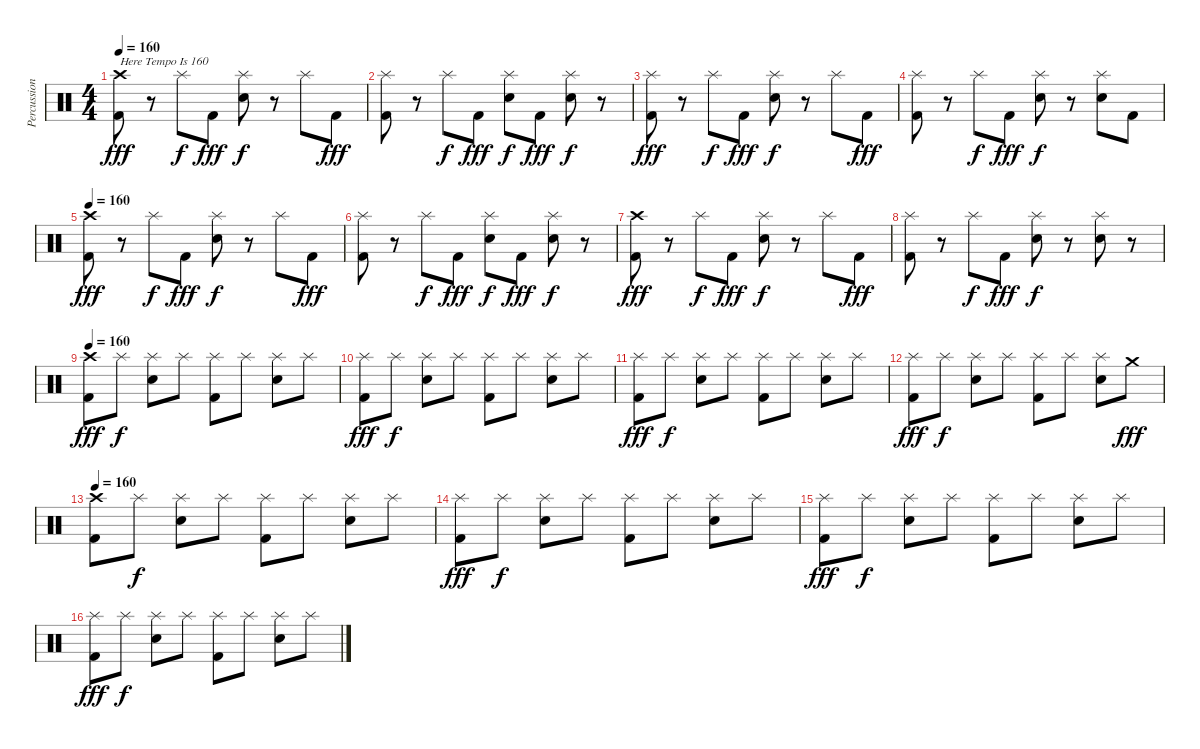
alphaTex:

\track ("Percussion" "Percussion") {instrument percussion}
\staff {score}
\articulation defaults
\ts (4 4)
\tempo 160
\clef neutral
\ks c
("Crash high (hit)" "Kick (hit) 2").8{txt "Here Tempo Is 160" dy fff} r.8 "Splash (hit)".8{dy f} "Kick (hit) 2".8{dy fff} ("Splash (hit)" "Electric Snare (hit)").8{dy f} r.8 "Splash (hit)".8 "Kick (hit) 2".8{dy fff} |
("Splash (hit)" "Kick (hit) 2").8 r.8 "Splash (hit)".8{dy f} "Kick (hit) 2".8{dy fff} ("Splash (hit)" "Electric Snare (hit)").8{dy f} "Kick (hit) 2".8{dy fff} ("Splash (hit)" "Electric Snare (hit)").8{dy f} r.8 |
("Splash (hit)" "Kick (hit) 2").8{dy fff} r.8 "Splash (hit)".8{dy f} "Kick (hit) 2".8{dy fff} ("Splash (hit)" "Electric Snare (hit)").8{dy f} r.8 "Splash (hit)".8 "Kick (hit) 2".8{dy fff} |
("Splash (hit)" "Kick (hit) 2").8 r.8 "Splash (hit)".8{dy f} "Kick (hit) 2".8{dy fff} ("Splash (hit)" "Electric Snare (hit)").8{dy f} r.8 ("Splash (hit)" "Electric Snare (hit)").8 "Kick (hit) 2".8 |
\tempo 160
("Crash high (hit)" "Kick (hit) 2").8{dy fff} r.8 "Splash (hit)".8{dy f} "Kick (hit) 2".8{dy fff} ("Splash (hit)" "Electric Snare (hit)").8{dy f} r.8 "Splash (hit)".8 "Kick (hit) 2".8{dy fff} |
("Splash (hit)" "Kick (hit) 2").8 r.8 "Splash (hit)".8{dy f} "Kick (hit) 2".8{dy fff} ("Splash (hit)" "Electric Snare (hit)").8{dy f} "Kick (hit) 2".8{dy fff} ("Splash (hit)" "Electric Snare (hit)").8{dy f} r.8 |
("Crash high (hit)" "Kick (hit) 2").8{dy fff} r.8 "Splash (hit)".8{dy f} "Kick (hit) 2".8{dy fff} ("Splash (hit)" "Electric Snare (hit)").8{dy f} r.8 "Splash (hit)".8 "Kick (hit) 2".8{dy fff} |
("Splash (hit)" "Kick (hit) 2").8 r.8 "Splash (hit)".8{dy f} "Kick (hit) 2".8{dy fff} ("Splash (hit)" "Electric Snare (hit)").8{dy f} r.8 ("Splash (hit)" "Electric Snare (hit)").8 r.8 |
\tempo 160
("Crash high (hit)" "Kick (hit) 2").8{dy fff} "Splash (hit)".8{dy f} ("Splash (hit)" "Electric Snare (hit)").8 "Splash (hit)".8 ("Splash (hit)" "Kick (hit) 2").8 "Splash (hit)".8 ("Splash (hit)" "Electric Snare (hit)").8 "Splash (hit)".8 |
("Splash (hit)" "Kick (hit) 2").8{dy fff} "Splash (hit)".8{dy f} ("Splash (hit)" "Electric Snare (hit)").8 "Splash (hit)".8 ("Splash (hit)" "Kick (hit) 2").8 "Splash (hit)".8 ("Splash (hit)" "Electric Snare (hit)").8 "Splash (hit)".8 |
("Splash (hit)" "Kick (hit) 2").8{dy fff} "Splash (hit)".8{dy f} ("Splash (hit)" "Electric Snare (hit)").8 "Splash (hit)".8 ("Splash (hit)" "Kick (hit) 2").8 "Splash (hit)".8 ("Splash (hit)" "Electric Snare (hit)").8 "Splash (hit)".8 |
("Splash (hit)" "Kick (hit) 2").8{dy fff} "Splash (hit)".8{dy f} ("Splash (hit)" "Electric Snare (hit)").8 "Splash (hit)".8 ("Splash (hit)" "Kick (hit) 2").8 "Splash (hit)".8 ("Splash (hit)" "Electric Snare (hit)").8 "Crash medium (hit)".8{dy fff} |
\tempo 160
("Crash high (hit)" "Kick (hit) 2").8 "Splash (hit)".8{dy f} ("Splash (hit)" "Electric Snare (hit)").8 "Splash (hit)".8 ("Splash (hit)" "Kick (hit) 2").8 "Splash (hit)".8 ("Splash (hit)" "Electric Snare (hit)").8 "Splash (hit)".8 |
("Splash (hit)" "Kick (hit) 2").8{dy fff} "Splash (hit)".8{dy f} ("Splash (hit)" "Electric Snare (hit)").8 "Splash (hit)".8 ("Splash (hit)" "Kick (hit) 2").8 "Splash (hit)".8 ("Splash (hit)" "Electric Snare (hit)").8 "Splash (hit)".8 |
("Splash (hit)" "Kick (hit) 2").8{dy fff} "Splash (hit)".8{dy f} ("Splash (hit)" "Electric Snare (hit)").8 "Splash (hit)".8 ("Splash (hit)" "Kick (hit) 2").8 "Splash (hit)".8 ("Splash (hit)" "Electric Snare (hit)").8 "Splash (hit)".8 |
("Splash (hit)" "Kick (hit) 2").8{dy fff} "Splash (hit)".8{dy f} ("Splash (hit)" "Electric Snare (hit)").8 "Splash (hit)".8 ("Splash (hit)" "Kick (hit) 2").8 "Splash (hit)".8 ("Splash (hit)" "Electric Snare (hit)").8 "Splash (hit)".8
